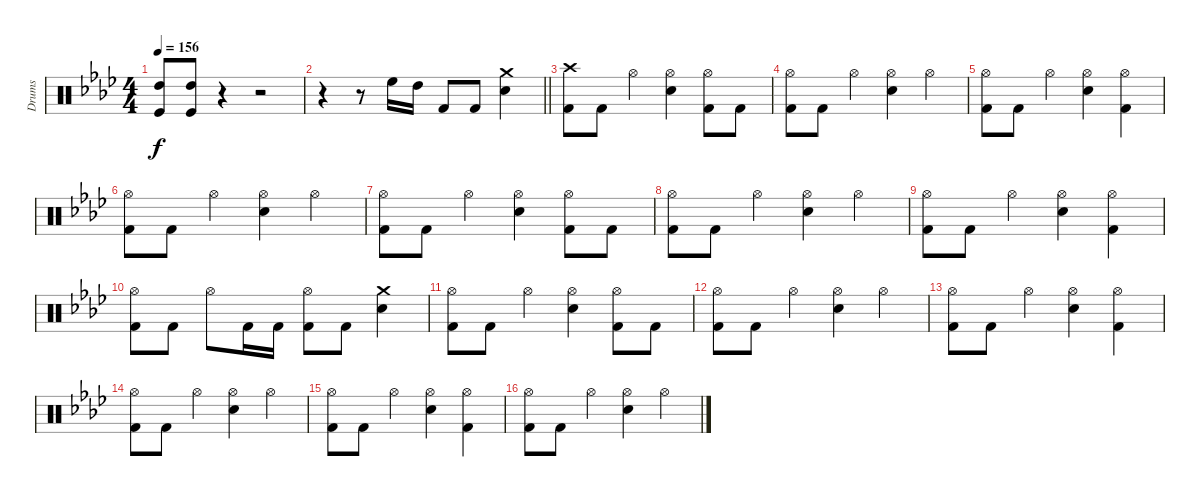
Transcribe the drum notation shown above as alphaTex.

\track ("Drums" "Drums") {instrument percussion}
\staff {score}
\articulation defaults
\ts (4 4)
\tempo 156
\clef neutral
\ks fminor
("High Tom (hit)" "Kick (hit)").8{dy f} ("High Tom (hit)" "Kick (hit)").8 r.4 r.2 |
\barLineRight lightlight
r.4 r.8 "High Floor Tom (hit)".16 "High Tom (hit)".16 "Kick (hit) 2".8 "Kick (hit) 2".8 ("Crash medium (hit)" "Electric Snare (hit)").4 |
("Crash high (hit)" "Kick (hit) 2").8 "Kick (hit) 2".8 "Hi-Hat (open)".4 ("Electric Snare (hit)" "Hi-Hat (open)").4 ("Kick (hit) 2" "Hi-Hat (open)").8 "Kick (hit) 2".8 |
("Hi-Hat (open)" "Kick (hit) 2").8 "Kick (hit) 2".8 "Hi-Hat (open)".4 ("Hi-Hat (open)" "Electric Snare (hit)").4 "Hi-Hat (open)".4 |
("Kick (hit) 2" "Hi-Hat (open)").8 "Kick (hit) 2".8 "Hi-Hat (open)".4 ("Hi-Hat (open)" "Electric Snare (hit)").4 ("Hi-Hat (open)" "Kick (hit) 2").4 |
("Hi-Hat (open)" "Kick (hit) 2").8 "Kick (hit) 2".8 "Hi-Hat (open)".4 ("Hi-Hat (open)" "Electric Snare (hit)").4 "Hi-Hat (open)".4 |
("Hi-Hat (open)" "Kick (hit) 2").8 "Kick (hit) 2".8 "Hi-Hat (open)".4 ("Electric Snare (hit)" "Hi-Hat (open)").4 ("Kick (hit) 2" "Hi-Hat (open)").8 "Kick (hit) 2".8 |
("Hi-Hat (open)" "Kick (hit) 2").8 "Kick (hit) 2".8 "Hi-Hat (open)".4 ("Hi-Hat (open)" "Electric Snare (hit)").4 "Hi-Hat (open)".4 |
("Kick (hit) 2" "Hi-Hat (open)").8 "Kick (hit) 2".8 "Hi-Hat (open)".4 ("Hi-Hat (open)" "Electric Snare (hit)").4 ("Hi-Hat (open)" "Kick (hit) 2").4 |
("Kick (hit) 2" "Hi-Hat (open)").8 "Kick (hit) 2".8 "Hi-Hat (open)".8 "Kick (hit) 2".16 "Kick (hit) 2".16 ("Kick (hit) 2" "Hi-Hat (open)").8 "Kick (hit) 2".8 ("Crash medium (hit)" "Electric Snare (hit)").4 |
("Hi-Hat (open)" "Kick (hit) 2").8 "Kick (hit) 2".8 "Hi-Hat (open)".4 ("Electric Snare (hit)" "Hi-Hat (open)").4 ("Kick (hit) 2" "Hi-Hat (open)").8 "Kick (hit) 2".8 |
("Hi-Hat (open)" "Kick (hit) 2").8 "Kick (hit) 2".8 "Hi-Hat (open)".4 ("Hi-Hat (open)" "Electric Snare (hit)").4 "Hi-Hat (open)".4 |
("Kick (hit) 2" "Hi-Hat (open)").8 "Kick (hit) 2".8 "Hi-Hat (open)".4 ("Hi-Hat (open)" "Electric Snare (hit)").4 ("Hi-Hat (open)" "Kick (hit) 2").4 |
("Hi-Hat (open)" "Kick (hit) 2").8 "Kick (hit) 2".8 "Hi-Hat (open)".4 ("Hi-Hat (open)" "Electric Snare (hit)").4 "Hi-Hat (open)".4 |
("Kick (hit) 2" "Hi-Hat (open)").8 "Kick (hit) 2".8 "Hi-Hat (open)".4 ("Hi-Hat (open)" "Electric Snare (hit)").4 ("Hi-Hat (open)" "Kick (hit) 2").4 |
("Hi-Hat (open)" "Kick (hit) 2").8 "Kick (hit) 2".8 "Hi-Hat (open)".4 ("Hi-Hat (open)" "Electric Snare (hit)").4 "Hi-Hat (open)".4
